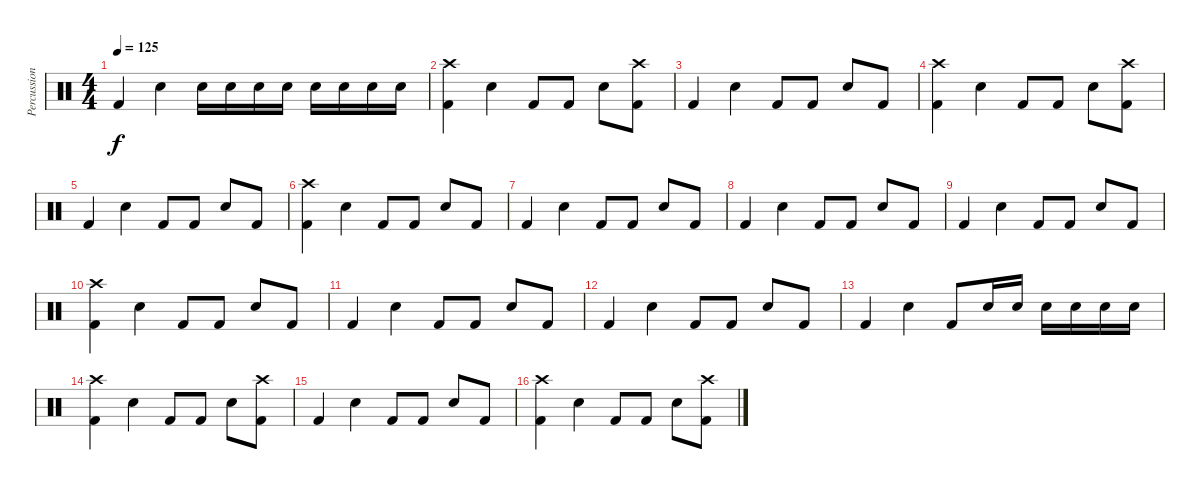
\track ("Percussion" "Percussion") {instrument percussion}
\staff {score}
\articulation defaults
\ts (4 4)
\tempo 125
\clef neutral
\ks c "Kick (hit) 2".4{dy f} "Snare (hit) 2".4 "Snare (hit) 2".16 "Snare (hit) 2".16 "Snare (hit) 2".16 "Snare (hit) 2".16 "Snare (hit) 2".16 "Snare (hit) 2".16 "Snare (hit) 2".16 "Snare (hit) 2".16
|
("Crash high (hit)" "Kick (hit) 2").4 "Snare (hit) 2".4 "Kick (hit) 2".8 "Kick (hit) 2".8 "Snare (hit) 2".8 ("Crash high (hit)" "Kick (hit) 2").8 |
"Kick (hit) 2".4 "Snare (hit) 2".4 "Kick (hit) 2".8 "Kick (hit) 2".8 "Snare (hit) 2".8 "Kick (hit) 2".8 |
("Crash high (hit)" "Kick (hit) 2").4 "Snare (hit) 2".4 "Kick (hit) 2".8 "Kick (hit) 2".8 "Snare (hit) 2".8 ("Crash high (hit)" "Kick (hit) 2").8 |
"Kick (hit) 2".4 "Snare (hit) 2".4 "Kick (hit) 2".8 "Kick (hit) 2".8 "Snare (hit) 2".8 "Kick (hit) 2".8 |
("Crash high (hit)" "Kick (hit) 2").4 "Snare (hit) 2".4 "Kick (hit) 2".8 "Kick (hit) 2".8 "Snare (hit) 2".8 "Kick (hit) 2".8 |
"Kick (hit) 2".4 "Snare (hit) 2".4 "Kick (hit) 2".8 "Kick (hit) 2".8 "Snare (hit) 2".8 "Kick (hit) 2".8 |
"Kick (hit) 2".4 "Snare (hit) 2".4 "Kick (hit) 2".8 "Kick (hit) 2".8 "Snare (hit) 2".8 "Kick (hit) 2".8 |
"Kick (hit) 2".4 "Snare (hit) 2".4 "Kick (hit) 2".8 "Kick (hit) 2".8 "Snare (hit) 2".8 "Kick (hit) 2".8 |
("Crash high (hit)" "Kick (hit) 2").4 "Snare (hit) 2".4 "Kick (hit) 2".8 "Kick (hit) 2".8 "Snare (hit) 2".8 "Kick (hit) 2".8 |
"Kick (hit) 2".4 "Snare (hit) 2".4 "Kick (hit) 2".8 "Kick (hit) 2".8 "Snare (hit) 2".8 "Kick (hit) 2".8 |
"Kick (hit) 2".4 "Snare (hit) 2".4 "Kick (hit) 2".8 "Kick (hit) 2".8 "Snare (hit) 2".8 "Kick (hit) 2".8 |
"Kick (hit) 2".4 "Snare (hit) 2".4 "Kick (hit) 2".8 "Snare (hit) 2".16 "Snare (hit) 2".16 "Snare (hit) 2".16 "Snare (hit) 2".16 "Snare (hit) 2".16 "Snare (hit) 2".16 |
("Crash high (hit)" "Kick (hit) 2").4 "Snare (hit) 2".4 "Kick (hit) 2".8 "Kick (hit) 2".8 "Snare (hit) 2".8 ("Crash high (hit)" "Kick (hit) 2").8 |
"Kick (hit) 2".4 "Snare (hit) 2".4 "Kick (hit) 2".8 "Kick (hit) 2".8 "Snare (hit) 2".8 "Kick (hit) 2".8 |
("Crash high (hit)" "Kick (hit) 2").4 "Snare (hit) 2".4 "Kick (hit) 2".8 "Kick (hit) 2".8 "Snare (hit) 2".8 ("Crash high (hit)" "Kick (hit) 2").8
